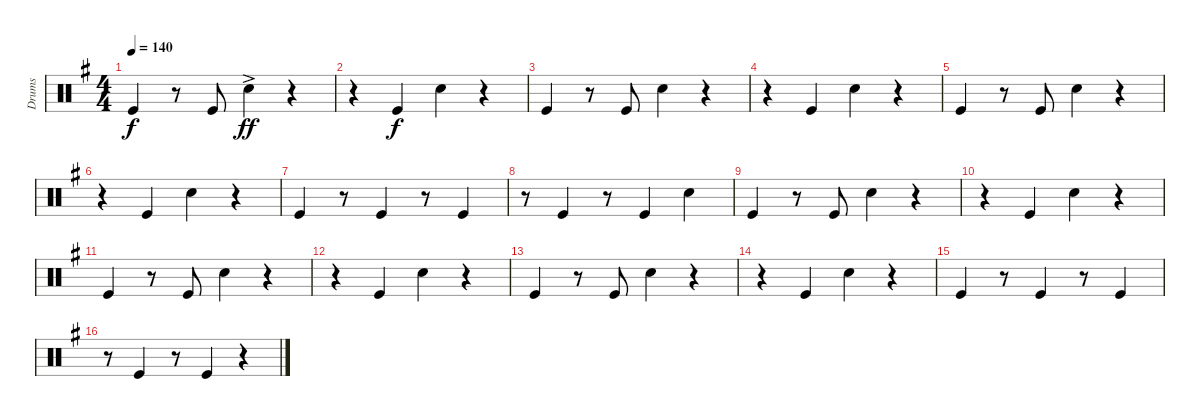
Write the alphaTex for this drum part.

\track ("Drums" "Drums") {instrument percussion}
\staff {score}
\articulation defaults
\ts (4 4)
\tempo 140
\clef neutral
\ks g "Kick (hit)".4{dy f}
r.8 "Kick (hit)".8 "Snare (hit) 2"{ac}.4{dy ff} r.4 |
r.4 "Kick (hit)".4{dy f} "Snare (hit) 2".4 r.4 |
"Kick (hit)".4 r.8 "Kick (hit)".8 "Snare (hit) 2".4 r.4 |
r.4 "Kick (hit)".4 "Snare (hit) 2".4 r.4 |
"Kick (hit)".4 r.8 "Kick (hit)".8 "Snare (hit) 2".4 r.4 |
r.4 "Kick (hit)".4 "Snare (hit) 2".4 r.4 |
"Kick (hit)".4 r.8 "Kick (hit)".4 r.8 "Kick (hit)".4 |
r.8 "Kick (hit)".4 r.8 "Kick (hit)".4 "Snare (hit) 2".4 |
"Kick (hit)".4 r.8 "Kick (hit)".8 "Snare (hit) 2".4 r.4 |
r.4 "Kick (hit)".4 "Snare (hit) 2".4 r.4 |
"Kick (hit)".4 r.8 "Kick (hit)".8 "Snare (hit) 2".4 r.4 |
r.4 "Kick (hit)".4 "Snare (hit) 2".4 r.4 |
"Kick (hit)".4 r.8 "Kick (hit)".8 "Snare (hit) 2".4 r.4 |
r.4 "Kick (hit)".4 "Snare (hit) 2".4 r.4 |
"Kick (hit)".4 r.8 "Kick (hit)".4 r.8 "Kick (hit)".4 |
r.8 "Kick (hit)".4 r.8 "Kick (hit)".4 r.4
